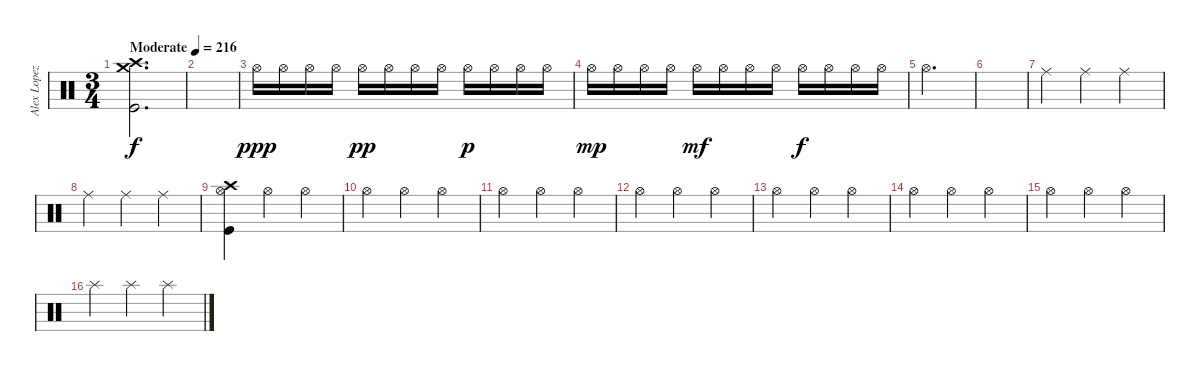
\track ("Alex Lopez" "Alex Lopez") {instrument percussion}
\staff {score}
\articulation defaults
\ts (3 4)
\tempo (216 "Moderate")
\clef neutral
\ks c
("Crash medium (hit)" "Crash high (hit)" "Kick (hit)").2{d dy f} |
|
"Hi-Hat (open)".16{dy ppp} "Hi-Hat (open)".16 "Hi-Hat (open)".16 "Hi-Hat (open)".16 "Hi-Hat (open)".16{dy pp} "Hi-Hat (open)".16 "Hi-Hat (open)".16 "Hi-Hat (open)".16 "Hi-Hat (open)".16{dy p} "Hi-Hat (open)".16 "Hi-Hat (open)".16 "Hi-Hat (open)".16 |
"Hi-Hat (open)".16{dy mp} "Hi-Hat (open)".16 "Hi-Hat (open)".16 "Hi-Hat (open)".16 "Hi-Hat (open)".16{dy mf} "Hi-Hat (open)".16 "Hi-Hat (open)".16 "Hi-Hat (open)".16 "Hi-Hat (open)".16{dy f} "Hi-Hat (open)".16 "Hi-Hat (open)".16 "Hi-Hat (open)".16 |
"Hi-Hat (open)".2{d} |
|
"Ride (middle)".4 "Ride (middle)".4 "Ride (middle)".4 |
"Ride (middle)".4 "Ride (middle)".4 "Ride (middle)".4 |
("Crash high (hit)" "Hi-Hat (open)" "Kick (hit)").4 "Hi-Hat (open)".4 "Hi-Hat (open)".4 |
"Hi-Hat (open)".4 "Hi-Hat (open)".4 "Hi-Hat (open)".4 |
"Hi-Hat (open)".4 "Hi-Hat (open)".4 "Hi-Hat (open)".4 |
"Hi-Hat (open)".4 "Hi-Hat (open)".4 "Hi-Hat (open)".4 |
"Hi-Hat (open)".4 "Hi-Hat (open)".4 "Hi-Hat (open)".4 |
"Hi-Hat (open)".4 "Hi-Hat (open)".4 "Hi-Hat (open)".4 |
"Hi-Hat (open)".4 "Hi-Hat (open)".4 "Hi-Hat (open)".4 |
"Splash (hit)".4 "Splash (hit)".4 "Splash (hit)".4
